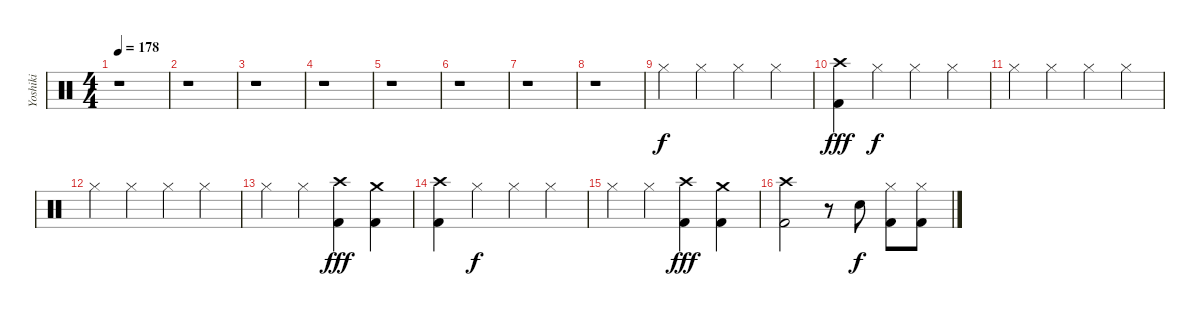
\track ("Yoshiki" "Yoshiki") {instrument percussion}
\staff {score}
\articulation defaults
\ts (4 4)
\tempo 178
\clef neutral
\ks c
r.1{dy f} |
r.1 |
r.1 |
r.1 |
r.1 |
r.1 |
r.1 |
r.1 |
"Hi-Hat (closed)".4 "Hi-Hat (closed)".4 "Hi-Hat (closed)".4 "Hi-Hat (closed)".4 |
("Crash high (hit)" "Kick (hit) 2").4{dy fff} "Hi-Hat (closed)".4{dy f} "Hi-Hat (closed)".4 "Hi-Hat (closed)".4 |
"Hi-Hat (closed)".4 "Hi-Hat (closed)".4 "Hi-Hat (closed)".4 "Hi-Hat (closed)".4 |
"Hi-Hat (closed)".4 "Hi-Hat (closed)".4 "Hi-Hat (closed)".4 "Hi-Hat (closed)".4 |
"Hi-Hat (closed)".4 "Hi-Hat (closed)".4 ("Crash high (hit)" "Kick (hit) 2").4{dy fff} ("Crash medium (hit)" "Kick (hit) 2").4 |
("Crash high (hit)" "Kick (hit) 2").4 "Hi-Hat (closed)".4{dy f} "Hi-Hat (closed)".4 "Hi-Hat (closed)".4 |
"Hi-Hat (closed)".4 "Hi-Hat (closed)".4 ("Crash high (hit)" "Kick (hit) 2").4{dy fff} ("Crash medium (hit)" "Kick (hit) 2").4 |
("Crash high (hit)" "Kick (hit) 2").2 r.8 "Snare (hit) 2".8{dy f} ("Hi-Hat (closed)" "Kick (hit) 2").8 ("Hi-Hat (closed)" "Kick (hit) 2").8
